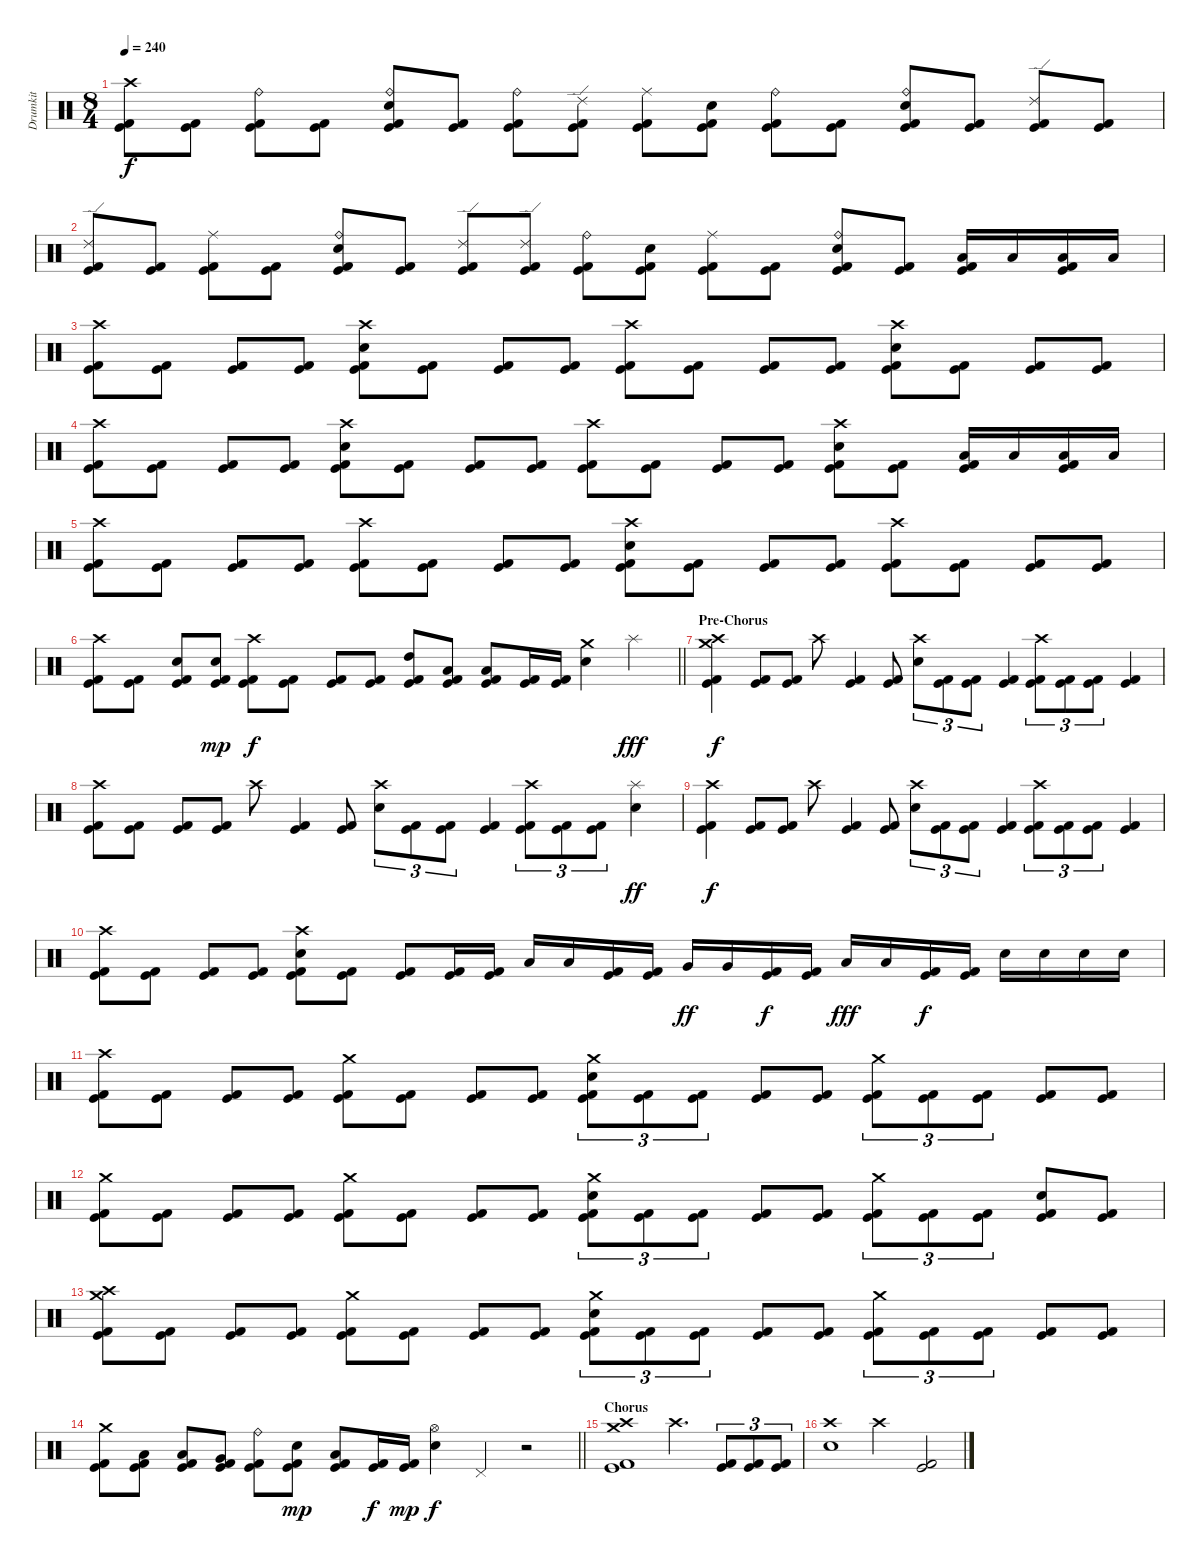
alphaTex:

\track ("Drumkit" "Drumkit") {instrument percussion}
\staff {score}
\articulation defaults
\ts (8 4)
\tempo 240
\clef neutral
\ks c
("Crash high (hit)" "Kick (hit)" "Kick (hit) 2").8{dy f} ("Kick (hit)" "Kick (hit) 2").8 ("Ride (bell)" "Kick (hit)" "Kick (hit) 2").8 ("Kick (hit)" "Kick (hit) 2").8 ("Ride (bell)" "Electric Snare (hit)" "Kick (hit)" "Kick (hit) 2").8 ("Kick (hit)" "Kick (hit) 2").8 ("Ride (bell)" "Kick (hit)" "Kick (hit) 2").8 ("Ride (edge) 2" "Kick (hit)" "Kick (hit) 2").8 ("Ride (middle)" "Kick (hit)" "Kick (hit) 2").8 ("Electric Snare (hit)" "Kick (hit)" "Kick (hit) 2").8 ("Ride (bell)" "Kick (hit)" "Kick (hit) 2").8 ("Kick (hit)" "Kick (hit) 2").8 ("Ride (bell)" "Electric Snare (hit)" "Kick (hit)" "Kick (hit) 2").8 ("Kick (hit)" "Kick (hit) 2").8 ("Ride (edge) 2" "Kick (hit)" "Kick (hit) 2").8 ("Kick (hit)" "Kick (hit) 2").8 |
("Ride (edge) 2" "Kick (hit)" "Kick (hit) 2").8 ("Kick (hit)" "Kick (hit) 2").8 ("Ride (middle)" "Kick (hit)" "Kick (hit) 2").8 ("Kick (hit)" "Kick (hit) 2").8 ("Ride (bell)" "Electric Snare (hit)" "Kick (hit)" "Kick (hit) 2").8 ("Kick (hit)" "Kick (hit) 2").8 ("Ride (edge) 2" "Kick (hit)" "Kick (hit) 2").8 ("Ride (edge) 2" "Kick (hit)" "Kick (hit) 2").8 ("Ride (bell)" "Kick (hit)" "Kick (hit) 2").8 ("Electric Snare (hit)" "Kick (hit)" "Kick (hit) 2").8 ("Ride (middle)" "Kick (hit)" "Kick (hit) 2").8 ("Kick (hit)" "Kick (hit) 2").8 ("Ride (bell)" "Electric Snare (hit)" "Kick (hit)" "Kick (hit) 2").8 ("Kick (hit)" "Kick (hit) 2").8 ("Low Tom (hit)" "Kick (hit)" "Kick (hit) 2").16 "Low Tom (hit)".16 ("Low Tom (hit)" "Kick (hit)" "Kick (hit) 2").16 "Low Tom (hit)".16 |
("Crash high (hit)" "Kick (hit)" "Kick (hit) 2").8 ("Kick (hit)" "Kick (hit) 2").8 ("Kick (hit)" "Kick (hit) 2").8 ("Kick (hit)" "Kick (hit) 2").8 ("Crash high (hit)" "Electric Snare (hit)" "Kick (hit)" "Kick (hit) 2").8 ("Kick (hit)" "Kick (hit) 2").8 ("Kick (hit)" "Kick (hit) 2").8 ("Kick (hit)" "Kick (hit) 2").8 ("Crash high (hit)" "Kick (hit)" "Kick (hit) 2").8 ("Kick (hit)" "Kick (hit) 2").8 ("Kick (hit)" "Kick (hit) 2").8 ("Kick (hit)" "Kick (hit) 2").8 ("Crash high (hit)" "Electric Snare (hit)" "Kick (hit)" "Kick (hit) 2").8 ("Kick (hit)" "Kick (hit) 2").8 ("Kick (hit)" "Kick (hit) 2").8 ("Kick (hit)" "Kick (hit) 2").8 |
("Crash high (hit)" "Kick (hit)" "Kick (hit) 2").8 ("Kick (hit)" "Kick (hit) 2").8 ("Kick (hit)" "Kick (hit) 2").8 ("Kick (hit)" "Kick (hit) 2").8 ("Crash high (hit)" "Electric Snare (hit)" "Kick (hit)" "Kick (hit) 2").8 ("Kick (hit)" "Kick (hit) 2").8 ("Kick (hit)" "Kick (hit) 2").8 ("Kick (hit)" "Kick (hit) 2").8 ("Crash high (hit)" "Kick (hit)" "Kick (hit) 2").8 ("Kick (hit)" "Kick (hit) 2").8 ("Kick (hit)" "Kick (hit) 2").8 ("Kick (hit)" "Kick (hit) 2").8 ("Crash high (hit)" "Electric Snare (hit)" "Kick (hit)" "Kick (hit) 2").8 ("Kick (hit)" "Kick (hit) 2").8 ("Low Tom (hit)" "Kick (hit)" "Kick (hit) 2").16 "Low Tom (hit)".16 ("Low Tom (hit)" "Kick (hit)" "Kick (hit) 2").16 "Low Tom (hit)".16 |
("Crash high (hit)" "Kick (hit)" "Kick (hit) 2").8 ("Kick (hit)" "Kick (hit) 2").8 ("Kick (hit)" "Kick (hit) 2").8 ("Kick (hit)" "Kick (hit) 2").8 ("Crash high (hit)" "Kick (hit)" "Kick (hit) 2").8 ("Kick (hit)" "Kick (hit) 2").8 ("Kick (hit)" "Kick (hit) 2").8 ("Kick (hit)" "Kick (hit) 2").8 ("Crash high (hit)" "Electric Snare (hit)" "Kick (hit)" "Kick (hit) 2").8 ("Kick (hit)" "Kick (hit) 2").8 ("Kick (hit)" "Kick (hit) 2").8 ("Kick (hit)" "Kick (hit) 2").8 ("Crash high (hit)" "Kick (hit)" "Kick (hit) 2").8 ("Kick (hit)" "Kick (hit) 2").8 ("Kick (hit)" "Kick (hit) 2").8 ("Kick (hit)" "Kick (hit) 2").8 |
\barLineRight lightlight
("Crash high (hit)" "Kick (hit)" "Kick (hit) 2").8 ("Kick (hit)" "Kick (hit) 2").8 ("Electric Snare (hit)" "Kick (hit)" "Kick (hit) 2").8 ("Electric Snare (hit)" "Kick (hit)" "Kick (hit) 2").8{dy mp} ("Crash high (hit)" "Kick (hit)" "Kick (hit) 2").8{dy f} ("Kick (hit)" "Kick (hit) 2").8 ("Kick (hit)" "Kick (hit) 2").8 ("Kick (hit)" "Kick (hit) 2").8 ("High Tom (hit)" "Kick (hit)" "Kick (hit) 2").8 ("Low Tom (hit)" "Kick (hit)" "Kick (hit) 2").8 ("Low Tom (hit)" "Kick (hit)" "Kick (hit) 2").8 ("Kick (hit)" "Kick (hit) 2").16 ("Kick (hit)" "Kick (hit) 2").16 ("Crash medium (hit)" "Electric Snare (hit)").4 "Splash (hit)".4{dy fff} |
\section ("" "Pre-Chorus")
("Crash high (hit)" "Crash medium (hit)" "Kick (hit)" "Kick (hit) 2").4{dy f} ("Kick (hit)" "Kick (hit) 2").8 ("Kick (hit)" "Kick (hit) 2").8 "Crash high (hit)".8 ("Kick (hit)" "Kick (hit) 2").4 ("Kick (hit)" "Kick (hit) 2").8 ("Crash high (hit)" "Electric Snare (hit)").8{tu (3 2)} ("Kick (hit)" "Kick (hit) 2").8{tu (3 2)} ("Kick (hit)" "Kick (hit) 2").8{tu (3 2)} ("Kick (hit)" "Kick (hit) 2").4 ("Crash high (hit)" "Kick (hit)" "Kick (hit) 2").8{tu (3 2)} ("Kick (hit)" "Kick (hit) 2").8{tu (3 2)} ("Kick (hit)" "Kick (hit) 2").8{tu (3 2)} ("Kick (hit)" "Kick (hit) 2").4 |
("Crash high (hit)" "Kick (hit)" "Kick (hit) 2").8 ("Kick (hit)" "Kick (hit) 2").8 ("Kick (hit)" "Kick (hit) 2").8 ("Kick (hit)" "Kick (hit) 2").8 "Crash high (hit)".8 ("Kick (hit)" "Kick (hit) 2").4 ("Kick (hit)" "Kick (hit) 2").8 ("Crash high (hit)" "Electric Snare (hit)").8{tu (3 2)} ("Kick (hit)" "Kick (hit) 2").8{tu (3 2)} ("Kick (hit)" "Kick (hit) 2").8{tu (3 2)} ("Kick (hit)" "Kick (hit) 2").4 ("Crash high (hit)" "Kick (hit)" "Kick (hit) 2").8{tu (3 2)} ("Kick (hit)" "Kick (hit) 2").8{tu (3 2)} ("Kick (hit)" "Kick (hit) 2").8{tu (3 2)} ("Splash (hit)" "Electric Snare (hit)").4{dy ff} |
("Crash high (hit)" "Kick (hit)" "Kick (hit) 2").4{dy f} ("Kick (hit)" "Kick (hit) 2").8 ("Kick (hit)" "Kick (hit) 2").8 "Crash high (hit)".8 ("Kick (hit)" "Kick (hit) 2").4 ("Kick (hit)" "Kick (hit) 2").8 ("Crash high (hit)" "Electric Snare (hit)").8{tu (3 2)} ("Kick (hit)" "Kick (hit) 2").8{tu (3 2)} ("Kick (hit)" "Kick (hit) 2").8{tu (3 2)} ("Kick (hit)" "Kick (hit) 2").4 ("Crash high (hit)" "Kick (hit)" "Kick (hit) 2").8{tu (3 2)} ("Kick (hit)" "Kick (hit) 2").8{tu (3 2)} ("Kick (hit)" "Kick (hit) 2").8{tu (3 2)} ("Kick (hit)" "Kick (hit) 2").4 |
("Crash high (hit)" "Kick (hit)" "Kick (hit) 2").8 ("Kick (hit)" "Kick (hit) 2").8 ("Kick (hit)" "Kick (hit) 2").8 ("Kick (hit)" "Kick (hit) 2").8 ("Crash high (hit)" "Electric Snare (hit)" "Kick (hit)" "Kick (hit) 2").8 ("Kick (hit)" "Kick (hit) 2").8 ("Kick (hit)" "Kick (hit) 2").8 ("Kick (hit)" "Kick (hit) 2").16 ("Kick (hit)" "Kick (hit) 2").16 "Low Tom (hit)".16 "Low Tom (hit)".16 ("Kick (hit)" "Kick (hit) 2").16 ("Kick (hit)" "Kick (hit) 2").16 "Very Low Tom (hit)".16{dy ff} "Very Low Tom (hit)".16 ("Kick (hit)" "Kick (hit) 2").16{dy f} ("Kick (hit)" "Kick (hit) 2").16 "Low Floor Tom (hit)".16{dy fff} "Low Floor Tom (hit)".16 ("Kick (hit)" "Kick (hit) 2").16{dy f} ("Kick (hit)" "Kick (hit) 2").16 "Electric Snare (hit)".16 "Electric Snare (hit)".16 "Electric Snare (hit)".16 "Electric Snare (hit)".16 |
("Crash high (hit)" "Kick (hit)" "Kick (hit) 2").8 ("Kick (hit)" "Kick (hit) 2").8 ("Kick (hit)" "Kick (hit) 2").8 ("Kick (hit)" "Kick (hit) 2").8 ("Crash medium (hit)" "Kick (hit)" "Kick (hit) 2").8 ("Kick (hit)" "Kick (hit) 2").8 ("Kick (hit)" "Kick (hit) 2").8 ("Kick (hit)" "Kick (hit) 2").8 ("Crash medium (hit)" "Electric Snare (hit)" "Kick (hit)" "Kick (hit) 2").8{tu (3 2)} ("Kick (hit)" "Kick (hit) 2").8{tu (3 2)} ("Kick (hit)" "Kick (hit) 2").8{tu (3 2)} ("Kick (hit)" "Kick (hit) 2").8 ("Kick (hit)" "Kick (hit) 2").8 ("Crash medium (hit)" "Kick (hit)" "Kick (hit) 2").8{tu (3 2)} ("Kick (hit)" "Kick (hit) 2").8{tu (3 2)} ("Kick (hit)" "Kick (hit) 2").8{tu (3 2)} ("Kick (hit)" "Kick (hit) 2").8 ("Kick (hit)" "Kick (hit) 2").8 |
("Crash medium (hit)" "Kick (hit)" "Kick (hit) 2").8 ("Kick (hit)" "Kick (hit) 2").8 ("Kick (hit)" "Kick (hit) 2").8 ("Kick (hit)" "Kick (hit) 2").8 ("Crash medium (hit)" "Kick (hit)" "Kick (hit) 2").8 ("Kick (hit)" "Kick (hit) 2").8 ("Kick (hit)" "Kick (hit) 2").8 ("Kick (hit)" "Kick (hit) 2").8 ("Crash medium (hit)" "Electric Snare (hit)" "Kick (hit)" "Kick (hit) 2").8{tu (3 2)} ("Kick (hit)" "Kick (hit) 2").8{tu (3 2)} ("Kick (hit)" "Kick (hit) 2").8{tu (3 2)} ("Kick (hit)" "Kick (hit) 2").8 ("Kick (hit)" "Kick (hit) 2").8 ("Crash medium (hit)" "Kick (hit)" "Kick (hit) 2").8{tu (3 2)} ("Kick (hit)" "Kick (hit) 2").8{tu (3 2)} ("Kick (hit)" "Kick (hit) 2").8{tu (3 2)} ("Electric Snare (hit)" "Kick (hit)" "Kick (hit) 2").8 ("Kick (hit)" "Kick (hit) 2").8 |
("Crash high (hit)" "Crash medium (hit)" "Kick (hit)" "Kick (hit) 2").8 ("Kick (hit)" "Kick (hit) 2").8 ("Kick (hit)" "Kick (hit) 2").8 ("Kick (hit)" "Kick (hit) 2").8 ("Crash medium (hit)" "Kick (hit)" "Kick (hit) 2").8 ("Kick (hit)" "Kick (hit) 2").8 ("Kick (hit)" "Kick (hit) 2").8 ("Kick (hit)" "Kick (hit) 2").8 ("Crash medium (hit)" "Electric Snare (hit)" "Kick (hit)" "Kick (hit) 2").8{tu (3 2)} ("Kick (hit)" "Kick (hit) 2").8{tu (3 2)} ("Kick (hit)" "Kick (hit) 2").8{tu (3 2)} ("Kick (hit)" "Kick (hit) 2").8 ("Kick (hit)" "Kick (hit) 2").8 ("Crash medium (hit)" "Kick (hit)" "Kick (hit) 2").8{tu (3 2)} ("Kick (hit)" "Kick (hit) 2").8{tu (3 2)} ("Kick (hit)" "Kick (hit) 2").8{tu (3 2)} ("Kick (hit)" "Kick (hit) 2").8 ("Kick (hit)" "Kick (hit) 2").8 |
\barLineRight lightlight
("Crash medium (hit)" "Kick (hit)" "Kick (hit) 2").8 ("Low Tom (hit)" "Kick (hit)" "Kick (hit) 2").8 ("Low Tom (hit)" "Kick (hit)" "Kick (hit) 2").8 ("Very Low Tom (hit)" "Kick (hit)" "Kick (hit) 2").8 ("Ride (bell)" "Kick (hit)" "Kick (hit) 2").8 ("Electric Snare (hit)" "Kick (hit)" "Kick (hit) 2").8{dy mp} ("Low Tom (hit)" "Kick (hit)" "Kick (hit) 2").8 ("Kick (hit)" "Kick (hit) 2").16{dy f} ("Kick (hit)" "Kick (hit) 2").16{dy mp} ("Hi-Hat (open)" "Electric Snare (hit)").4{dy f} "Pedal Hi-Hat (hit)".4 r.2 |
\section ("" "Chorus")
("Crash high (hit)" "Crash medium (hit)" "Kick (hit)" "Kick (hit) 2").1 "Crash high (hit)".2{d} ("Kick (hit)" "Kick (hit) 2").8{tu (3 2)} ("Kick (hit)" "Kick (hit) 2").8{tu (3 2)} ("Kick (hit)" "Kick (hit) 2").8{tu (3 2)} |
("Crash high (hit)" "Electric Snare (hit)").1 "Crash high (hit)".2 ("Kick (hit)" "Kick (hit) 2").2
